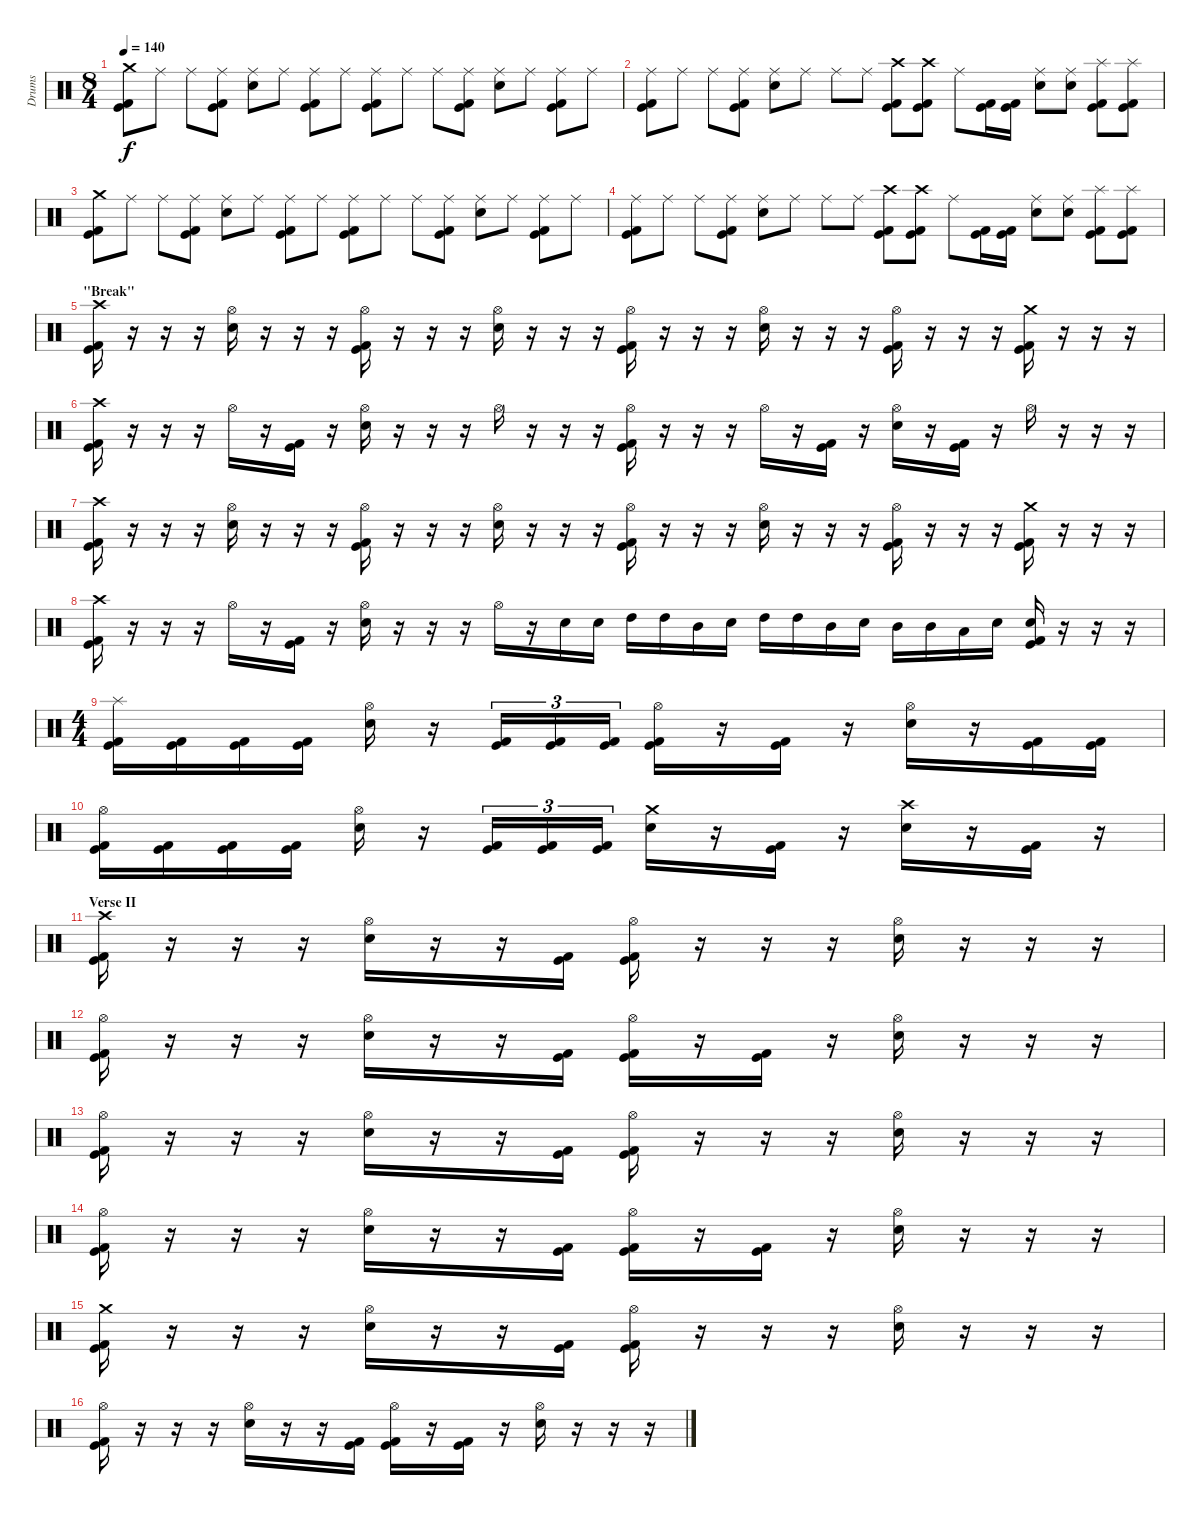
\track ("Drums" "Drums") {instrument percussion}
\staff {score}
\articulation defaults
\ts (8 4)
\tempo 140
\clef neutral
\ks c
("Crash medium (hit)" "Kick (hit)" "Kick (hit) 2").8{dy f} "Ride (middle)".8 "Ride (middle)".8 ("Ride (middle)" "Kick (hit)" "Kick (hit) 2").8 ("Ride (middle)" "Electric Snare (hit)").8 "Ride (middle)".8 ("Ride (middle)" "Kick (hit)" "Kick (hit) 2").8 "Ride (middle)".8 ("Ride (middle)" "Kick (hit)" "Kick (hit) 2").8 "Ride (middle)".8 "Ride (middle)".8 ("Ride (middle)" "Kick (hit)" "Kick (hit) 2").8 ("Ride (middle)" "Electric Snare (hit)").8 "Ride (middle)".8 ("Ride (middle)" "Kick (hit)" "Kick (hit) 2").8 "Ride (middle)".8 |
("Ride (middle)" "Kick (hit)" "Kick (hit) 2").8 "Ride (middle)".8 "Ride (middle)".8 ("Ride (middle)" "Kick (hit)" "Kick (hit) 2").8 ("Ride (middle)" "Electric Snare (hit)").8 "Ride (middle)".8 "Ride (middle)".8 "Ride (middle)".8 ("Crash high (hit)" "Kick (hit)" "Kick (hit) 2").8 ("Crash high (hit)" "Kick (hit)" "Kick (hit) 2").8 "Ride (middle)".8 ("Kick (hit)" "Kick (hit) 2").16 ("Kick (hit)" "Kick (hit) 2").16 ("Ride (middle)" "Electric Snare (hit)").8 ("Ride (middle)" "Electric Snare (hit)").8 ("Splash (hit)" "Kick (hit)" "Kick (hit) 2").8 ("Splash (hit)" "Kick (hit)" "Kick (hit) 2").8 |
("Crash medium (hit)" "Kick (hit)" "Kick (hit) 2").8 "Ride (middle)".8 "Ride (middle)".8 ("Ride (middle)" "Kick (hit)" "Kick (hit) 2").8 ("Ride (middle)" "Electric Snare (hit)").8 "Ride (middle)".8 ("Ride (middle)" "Kick (hit)" "Kick (hit) 2").8 "Ride (middle)".8 ("Ride (middle)" "Kick (hit)" "Kick (hit) 2").8 "Ride (middle)".8 "Ride (middle)".8 ("Ride (middle)" "Kick (hit)" "Kick (hit) 2").8 ("Ride (middle)" "Electric Snare (hit)").8 "Ride (middle)".8 ("Ride (middle)" "Kick (hit)" "Kick (hit) 2").8 "Ride (middle)".8 |
("Ride (middle)" "Kick (hit)" "Kick (hit) 2").8 "Ride (middle)".8 "Ride (middle)".8 ("Ride (middle)" "Kick (hit)" "Kick (hit) 2").8 ("Ride (middle)" "Electric Snare (hit)").8 "Ride (middle)".8 "Ride (middle)".8 "Ride (middle)".8 ("Crash high (hit)" "Kick (hit)" "Kick (hit) 2").8 ("Crash high (hit)" "Kick (hit)" "Kick (hit) 2").8 "Ride (middle)".8 ("Kick (hit)" "Kick (hit) 2").16 ("Kick (hit)" "Kick (hit) 2").16 ("Ride (middle)" "Electric Snare (hit)").8 ("Ride (middle)" "Electric Snare (hit)").8 ("Splash (hit)" "Kick (hit)" "Kick (hit) 2").8 ("Splash (hit)" "Kick (hit)" "Kick (hit) 2").8 |
\section ("" "\"Break\"")
("Crash high (hit)" "Kick (hit)" "Kick (hit) 2").16 r.16 r.16 r.16 ("Hi-Hat (open)" "Electric Snare (hit)").16 r.16 r.16 r.16 ("Hi-Hat (open)" "Kick (hit)" "Kick (hit) 2").16 r.16 r.16 r.16 ("Hi-Hat (open)" "Electric Snare (hit)").16 r.16 r.16 r.16 ("Hi-Hat (open)" "Kick (hit)" "Kick (hit) 2").16 r.16 r.16 r.16 ("Hi-Hat (open)" "Electric Snare (hit)").16 r.16 r.16 r.16 ("Hi-Hat (open)" "Kick (hit)" "Kick (hit) 2").16 r.16 r.16 r.16 ("Crash medium (hit)" "Kick (hit)" "Kick (hit) 2").16 r.16 r.16 r.16 |
("Crash high (hit)" "Kick (hit)" "Kick (hit) 2").16 r.16 r.16 r.16 "Hi-Hat (open)".16 r.16 ("Kick (hit)" "Kick (hit) 2").16 r.16 ("Hi-Hat (open)" "Electric Snare (hit)").16 r.16 r.16 r.16 "Hi-Hat (open)".16 r.16 r.16 r.16 ("Hi-Hat (open)" "Kick (hit)" "Kick (hit) 2").16 r.16 r.16 r.16 "Hi-Hat (open)".16 r.16 ("Kick (hit)" "Kick (hit) 2").16 r.16 ("Hi-Hat (open)" "Electric Snare (hit)").16 r.16 ("Kick (hit)" "Kick (hit) 2").16 r.16 "Hi-Hat (open)".16 r.16 r.16 r.16 |
("Crash high (hit)" "Kick (hit)" "Kick (hit) 2").16 r.16 r.16 r.16 ("Hi-Hat (open)" "Electric Snare (hit)").16 r.16 r.16 r.16 ("Hi-Hat (open)" "Kick (hit)" "Kick (hit) 2").16 r.16 r.16 r.16 ("Hi-Hat (open)" "Electric Snare (hit)").16 r.16 r.16 r.16 ("Hi-Hat (open)" "Kick (hit)" "Kick (hit) 2").16 r.16 r.16 r.16 ("Hi-Hat (open)" "Electric Snare (hit)").16 r.16 r.16 r.16 ("Hi-Hat (open)" "Kick (hit)" "Kick (hit) 2").16 r.16 r.16 r.16 ("Crash medium (hit)" "Kick (hit)" "Kick (hit) 2").16 r.16 r.16 r.16 |
("Crash high (hit)" "Kick (hit)" "Kick (hit) 2").16 r.16 r.16 r.16 "Hi-Hat (open)".16 r.16 ("Kick (hit)" "Kick (hit) 2").16 r.16 ("Hi-Hat (open)" "Electric Snare (hit)").16 r.16 r.16 r.16 "Hi-Hat (open)".16 r.16 "Electric Snare (hit)".16 "Electric Snare (hit)".16 "High Tom (hit)".16 "High Tom (hit)".16 "Mid Tom (hit)".16 "Electric Snare (hit)".16 "High Tom (hit)".16 "High Tom (hit)".16 "Mid Tom (hit)".16 "Electric Snare (hit)".16 "Mid Tom (hit)".16 "Mid Tom (hit)".16 "Low Tom (hit)".16 "Electric Snare (hit)".16 ("Electric Snare (hit)" "Kick (hit)" "Kick (hit) 2").16 r.16 r.16 r.16 |
\ts (4 4)
("Splash (hit)" "Kick (hit)" "Kick (hit) 2").16 ("Kick (hit)" "Kick (hit) 2").16 ("Kick (hit)" "Kick (hit) 2").16 ("Kick (hit)" "Kick (hit) 2").16 ("Hi-Hat (open)" "Electric Snare (hit)").16 r.16 ("Kick (hit)" "Kick (hit) 2").16{tu (3 2)} ("Kick (hit)" "Kick (hit) 2").16{tu (3 2)} ("Kick (hit)" "Kick (hit) 2").16{tu (3 2)} ("Hi-Hat (open)" "Kick (hit)" "Kick (hit) 2").16 r.16 ("Kick (hit)" "Kick (hit) 2").16 r.16 ("Hi-Hat (open)" "Electric Snare (hit)").16 r.16 ("Kick (hit)" "Kick (hit) 2").16 ("Kick (hit)" "Kick (hit) 2").16 |
("Hi-Hat (open)" "Kick (hit)" "Kick (hit) 2").16 ("Kick (hit)" "Kick (hit) 2").16 ("Kick (hit)" "Kick (hit) 2").16 ("Kick (hit)" "Kick (hit) 2").16 ("Hi-Hat (open)" "Electric Snare (hit)").16 r.16 ("Kick (hit)" "Kick (hit) 2").16{tu (3 2)} ("Kick (hit)" "Kick (hit) 2").16{tu (3 2)} ("Kick (hit)" "Kick (hit) 2").16{tu (3 2)} ("Crash medium (hit)" "Electric Snare (hit)").16 r.16 ("Kick (hit)" "Kick (hit) 2").16 r.16 ("Crash high (hit)" "Electric Snare (hit)").16 r.16 ("Kick (hit)" "Kick (hit) 2").16 r.16 |
\section ("" "Verse II")
("Crash high (hit)" "Kick (hit)" "Kick (hit) 2").16 r.16 r.16 r.16 ("Hi-Hat (open)" "Electric Snare (hit)").16 r.16 r.16 ("Kick (hit)" "Kick (hit) 2").16 ("Hi-Hat (open)" "Kick (hit)" "Kick (hit) 2").16 r.16 r.16 r.16 ("Hi-Hat (open)" "Electric Snare (hit)").16 r.16 r.16 r.16 |
("Hi-Hat (open)" "Kick (hit)" "Kick (hit) 2").16 r.16 r.16 r.16 ("Hi-Hat (open)" "Electric Snare (hit)").16 r.16 r.16 ("Kick (hit)" "Kick (hit) 2").16 ("Hi-Hat (open)" "Kick (hit)" "Kick (hit) 2").16 r.16 ("Kick (hit)" "Kick (hit) 2").16 r.16 ("Hi-Hat (open)" "Electric Snare (hit)").16 r.16 r.16 r.16 |
("Hi-Hat (open)" "Kick (hit)" "Kick (hit) 2").16 r.16 r.16 r.16 ("Hi-Hat (open)" "Electric Snare (hit)").16 r.16 r.16 ("Kick (hit)" "Kick (hit) 2").16 ("Hi-Hat (open)" "Kick (hit)" "Kick (hit) 2").16 r.16 r.16 r.16 ("Hi-Hat (open)" "Electric Snare (hit)").16 r.16 r.16 r.16 |
("Hi-Hat (open)" "Kick (hit)" "Kick (hit) 2").16 r.16 r.16 r.16 ("Hi-Hat (open)" "Electric Snare (hit)").16 r.16 r.16 ("Kick (hit)" "Kick (hit) 2").16 ("Hi-Hat (open)" "Kick (hit)" "Kick (hit) 2").16 r.16 ("Kick (hit)" "Kick (hit) 2").16 r.16 ("Hi-Hat (open)" "Electric Snare (hit)").16 r.16 r.16 r.16 |
("Crash medium (hit)" "Kick (hit)" "Kick (hit) 2").16 r.16 r.16 r.16 ("Hi-Hat (open)" "Electric Snare (hit)").16 r.16 r.16 ("Kick (hit)" "Kick (hit) 2").16 ("Hi-Hat (open)" "Kick (hit)" "Kick (hit) 2").16 r.16 r.16 r.16 ("Hi-Hat (open)" "Electric Snare (hit)").16 r.16 r.16 r.16 |
("Hi-Hat (open)" "Kick (hit)" "Kick (hit) 2").16 r.16 r.16 r.16 ("Hi-Hat (open)" "Electric Snare (hit)").16 r.16 r.16 ("Kick (hit)" "Kick (hit) 2").16 ("Hi-Hat (open)" "Kick (hit)" "Kick (hit) 2").16 r.16 ("Kick (hit)" "Kick (hit) 2").16 r.16 ("Hi-Hat (open)" "Electric Snare (hit)").16 r.16 r.16 r.16
